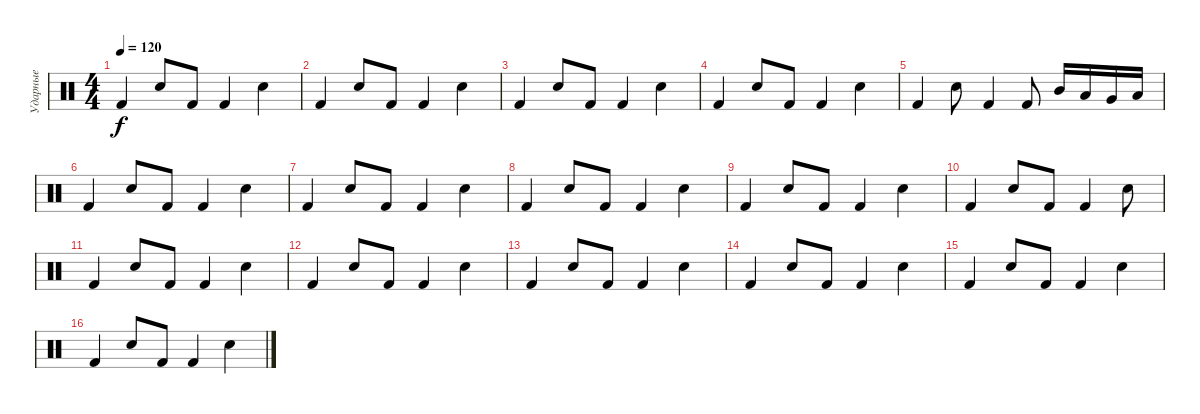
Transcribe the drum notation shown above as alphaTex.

\track ("Ударные" "Ударные") {instrument percussion}
\staff {score}
\articulation defaults
\ts (4 4)
\tempo 120
\clef neutral
\ks c "Kick (hit) 2".4{dy f} "Electric Snare (hit)".8 "Kick (hit) 2".8 "Kick (hit) 2".4 "Electric Snare (hit)".4
|
"Kick (hit) 2".4 "Electric Snare (hit)".8 "Kick (hit) 2".8 "Kick (hit) 2".4 "Electric Snare (hit)".4 |
"Kick (hit) 2".4 "Electric Snare (hit)".8 "Kick (hit) 2".8 "Kick (hit) 2".4 "Electric Snare (hit)".4 |
"Kick (hit) 2".4 "Electric Snare (hit)".8 "Kick (hit) 2".8 "Kick (hit) 2".4 "Electric Snare (hit)".4 |
"Kick (hit) 2".4 "Electric Snare (hit)".8 "Kick (hit) 2".4 "Kick (hit) 2".8 "Mid Tom (hit)".16 "Low Tom (hit)".16 "Very Low Tom (hit)".16 "Low Floor Tom (hit)".16 |
"Kick (hit) 2".4 "Electric Snare (hit)".8 "Kick (hit) 2".8 "Kick (hit) 2".4 "Electric Snare (hit)".4 |
"Kick (hit) 2".4 "Electric Snare (hit)".8 "Kick (hit) 2".8 "Kick (hit) 2".4 "Electric Snare (hit)".4 |
"Kick (hit) 2".4 "Electric Snare (hit)".8 "Kick (hit) 2".8 "Kick (hit) 2".4 "Electric Snare (hit)".4 |
"Kick (hit) 2".4 "Electric Snare (hit)".8 "Kick (hit) 2".8 "Kick (hit) 2".4 "Electric Snare (hit)".4 |
"Kick (hit) 2".4 "Electric Snare (hit)".8 "Kick (hit) 2".8 "Kick (hit) 2".4 "Electric Snare (hit)".8 |
"Kick (hit) 2".4 "Electric Snare (hit)".8 "Kick (hit) 2".8 "Kick (hit) 2".4 "Electric Snare (hit)".4 |
"Kick (hit) 2".4 "Electric Snare (hit)".8 "Kick (hit) 2".8 "Kick (hit) 2".4 "Electric Snare (hit)".4 |
"Kick (hit) 2".4 "Electric Snare (hit)".8 "Kick (hit) 2".8 "Kick (hit) 2".4 "Electric Snare (hit)".4 |
"Kick (hit) 2".4 "Electric Snare (hit)".8 "Kick (hit) 2".8 "Kick (hit) 2".4 "Electric Snare (hit)".4 |
"Kick (hit) 2".4 "Electric Snare (hit)".8 "Kick (hit) 2".8 "Kick (hit) 2".4 "Electric Snare (hit)".4 |
"Kick (hit) 2".4 "Electric Snare (hit)".8 "Kick (hit) 2".8 "Kick (hit) 2".4 "Electric Snare (hit)".4
